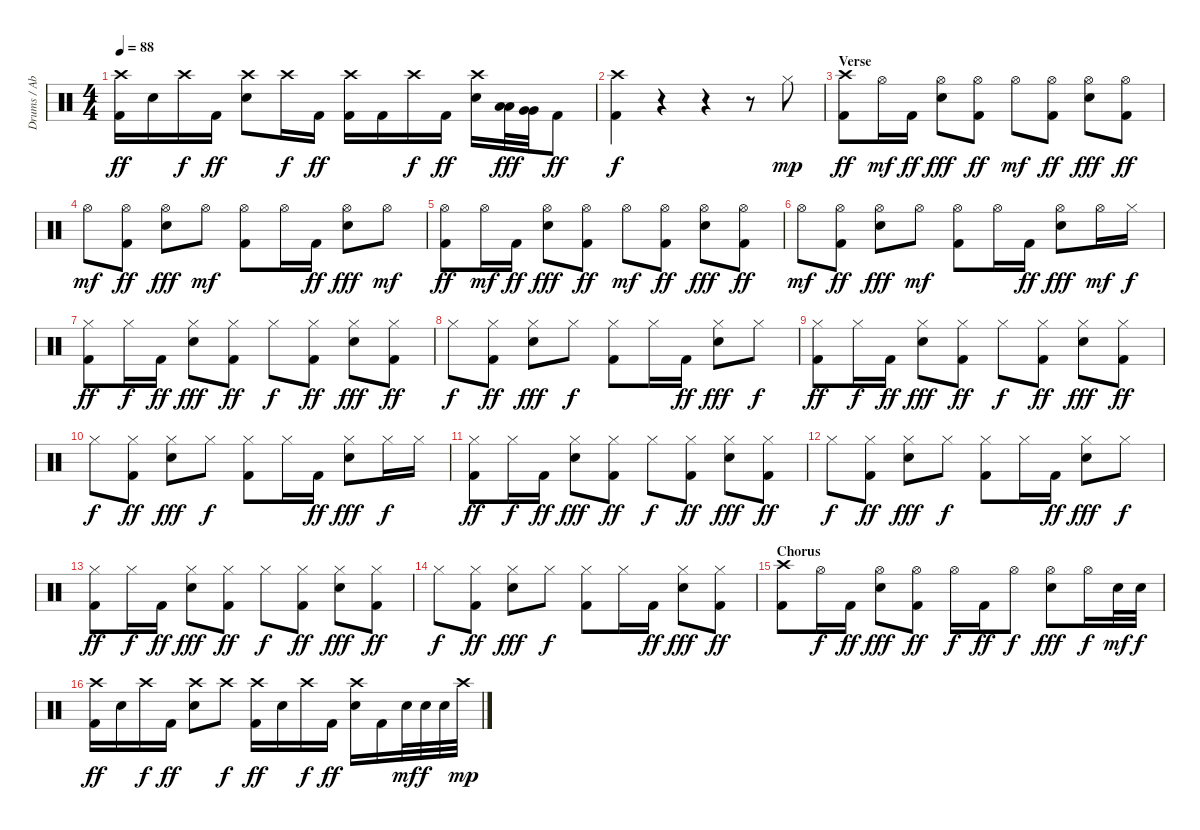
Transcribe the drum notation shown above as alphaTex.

\track ("Drums / Abe Cunningham" "Drums / Ab") {instrument percussion}
\staff {score}
\articulation defaults
\ts (4 4)
\tempo 88
\clef neutral
\ks c
("Crash high (hit)" "Kick (hit) 2").16{dy ff} "Electric Snare (hit)".16 "Crash high (hit)".16{dy f} "Kick (hit) 2".16{dy ff} ("Crash high (hit)" "Electric Snare (hit)").8 "Crash high (hit)".16{dy f} "Kick (hit) 2".16{dy ff} ("Crash high (hit)" "Kick (hit) 2").16 "Kick (hit) 2".16 "Crash high (hit)".16{dy f} "Kick (hit) 2".16{dy ff} ("Crash high (hit)" "Electric Snare (hit)").16 ("Low Tom (hit)" "Low Tom (hit)").32{dy fff} ("Very Low Tom (hit)" "Very Low Tom (hit)").32 "Kick (hit) 2".8{dy ff} |
("Crash high (hit)" "Kick (hit) 2").4{dy f} r.4 r.4 r.8 "Hi-Hat (closed)".8{dy mp} |
\section ("" "Verse")
("Crash high (hit)" "Kick (hit) 2").8{dy ff} "Hi-Hat (open)".16{dy mf} "Kick (hit) 2".16{dy ff} ("Hi-Hat (open)" "Electric Snare (hit)").8{dy fff} ("Hi-Hat (open)" "Kick (hit) 2").8{dy ff} "Hi-Hat (open)".8{dy mf} ("Hi-Hat (open)" "Kick (hit) 2").8{dy ff} ("Hi-Hat (open)" "Electric Snare (hit)").8{dy fff} ("Hi-Hat (open)" "Kick (hit) 2").8{dy ff} |
"Hi-Hat (open)".8{dy mf} ("Hi-Hat (open)" "Kick (hit) 2").8{dy ff} ("Hi-Hat (open)" "Electric Snare (hit)").8{dy fff} "Hi-Hat (open)".8{dy mf} ("Hi-Hat (open)" "Kick (hit) 2").8 "Hi-Hat (open)".16 "Kick (hit) 2".16{dy ff} ("Hi-Hat (open)" "Electric Snare (hit)").8{dy fff} "Hi-Hat (open)".8{dy mf} |
("Hi-Hat (open)" "Kick (hit) 2").8{dy ff} "Hi-Hat (open)".16{dy mf} "Kick (hit) 2".16{dy ff} ("Hi-Hat (open)" "Electric Snare (hit)").8{dy fff} ("Hi-Hat (open)" "Kick (hit) 2").8{dy ff} "Hi-Hat (open)".8{dy mf} ("Hi-Hat (open)" "Kick (hit) 2").8{dy ff} ("Hi-Hat (open)" "Electric Snare (hit)").8{dy fff} ("Hi-Hat (open)" "Kick (hit) 2").8{dy ff} |
"Hi-Hat (open)".8{dy mf} ("Hi-Hat (open)" "Kick (hit) 2").8{dy ff} ("Hi-Hat (open)" "Electric Snare (hit)").8{dy fff} "Hi-Hat (open)".8{dy mf} ("Hi-Hat (open)" "Kick (hit) 2").8 "Hi-Hat (open)".16 "Kick (hit) 2".16{dy ff} ("Hi-Hat (open)" "Electric Snare (hit)").8{dy fff} "Hi-Hat (open)".16{dy mf} "Hi-Hat (closed)".16{dy f} |
("Hi-Hat (closed)" "Kick (hit) 2").8{dy ff} "Hi-Hat (closed)".16{dy f} "Kick (hit) 2".16{dy ff} ("Hi-Hat (closed)" "Electric Snare (hit)").8{dy fff} ("Hi-Hat (closed)" "Kick (hit) 2").8{dy ff} "Hi-Hat (closed)".8{dy f} ("Hi-Hat (closed)" "Kick (hit) 2").8{dy ff} ("Hi-Hat (closed)" "Electric Snare (hit)").8{dy fff} ("Hi-Hat (closed)" "Kick (hit) 2").8{dy ff} |
"Hi-Hat (closed)".8{dy f} ("Hi-Hat (closed)" "Kick (hit) 2").8{dy ff} ("Hi-Hat (closed)" "Electric Snare (hit)").8{dy fff} "Hi-Hat (closed)".8{dy f} ("Hi-Hat (closed)" "Kick (hit) 2").8 "Hi-Hat (closed)".16 "Kick (hit) 2".16{dy ff} ("Hi-Hat (closed)" "Electric Snare (hit)").8{dy fff} "Hi-Hat (closed)".8{dy f} |
("Hi-Hat (closed)" "Kick (hit) 2").8{dy ff} "Hi-Hat (closed)".16{dy f} "Kick (hit) 2".16{dy ff} ("Hi-Hat (closed)" "Electric Snare (hit)").8{dy fff} ("Hi-Hat (closed)" "Kick (hit) 2").8{dy ff} "Hi-Hat (closed)".8{dy f} ("Hi-Hat (closed)" "Kick (hit) 2").8{dy ff} ("Hi-Hat (closed)" "Electric Snare (hit)").8{dy fff} ("Hi-Hat (closed)" "Kick (hit) 2").8{dy ff} |
"Hi-Hat (closed)".8{dy f} ("Hi-Hat (closed)" "Kick (hit) 2").8{dy ff} ("Hi-Hat (closed)" "Electric Snare (hit)").8{dy fff} "Hi-Hat (closed)".8{dy f} ("Hi-Hat (closed)" "Kick (hit) 2").8 "Hi-Hat (closed)".16 "Kick (hit) 2".16{dy ff} ("Hi-Hat (closed)" "Electric Snare (hit)").8{dy fff} "Hi-Hat (closed)".16{dy f} "Hi-Hat (closed)".16 |
("Hi-Hat (closed)" "Kick (hit) 2").8{dy ff} "Hi-Hat (closed)".16{dy f} "Kick (hit) 2".16{dy ff} ("Hi-Hat (closed)" "Electric Snare (hit)").8{dy fff} ("Hi-Hat (closed)" "Kick (hit) 2").8{dy ff} "Hi-Hat (closed)".8{dy f} ("Hi-Hat (closed)" "Kick (hit) 2").8{dy ff} ("Hi-Hat (closed)" "Electric Snare (hit)").8{dy fff} ("Hi-Hat (closed)" "Kick (hit) 2").8{dy ff} |
"Hi-Hat (closed)".8{dy f} ("Hi-Hat (closed)" "Kick (hit) 2").8{dy ff} ("Hi-Hat (closed)" "Electric Snare (hit)").8{dy fff} "Hi-Hat (closed)".8{dy f} ("Hi-Hat (closed)" "Kick (hit) 2").8 "Hi-Hat (closed)".16 "Kick (hit) 2".16{dy ff} ("Hi-Hat (closed)" "Electric Snare (hit)").8{dy fff} "Hi-Hat (closed)".8{dy f} |
("Hi-Hat (closed)" "Kick (hit) 2").8{dy ff} "Hi-Hat (closed)".16{dy f} "Kick (hit) 2".16{dy ff} ("Hi-Hat (closed)" "Electric Snare (hit)").8{dy fff} ("Hi-Hat (closed)" "Kick (hit) 2").8{dy ff} "Hi-Hat (closed)".8{dy f} ("Hi-Hat (closed)" "Kick (hit) 2").8{dy ff} ("Hi-Hat (closed)" "Electric Snare (hit)").8{dy fff} ("Hi-Hat (closed)" "Kick (hit) 2").8{dy ff} |
"Hi-Hat (closed)".8{dy f} ("Hi-Hat (closed)" "Kick (hit) 2").8{dy ff} ("Hi-Hat (closed)" "Electric Snare (hit)").8{dy fff} "Hi-Hat (closed)".8{dy f} ("Hi-Hat (closed)" "Kick (hit) 2").8 "Hi-Hat (closed)".16 "Kick (hit) 2".16{dy ff} ("Hi-Hat (closed)" "Electric Snare (hit)").8{dy fff} ("Hi-Hat (closed)" "Kick (hit) 2").8{dy ff} |
\section ("" "Chorus")
("Crash high (hit)" "Kick (hit) 2").8 "Hi-Hat (open)".16{dy f} "Kick (hit) 2".16{dy ff} ("Hi-Hat (open)" "Electric Snare (hit)").8{dy fff} ("Hi-Hat (open)" "Kick (hit) 2").8{dy ff} "Hi-Hat (open)".16{dy f} "Kick (hit) 2".16{dy ff} "Hi-Hat (open)".8{dy f} ("Hi-Hat (open)" "Electric Snare (hit)").8{dy fff} "Hi-Hat (open)".16{dy f} "Electric Snare (hit)".32{dy mf} "Electric Snare (hit)".32{dy f} |
("Crash high (hit)" "Kick (hit) 2").16{dy ff} "Electric Snare (hit)".16 "Crash high (hit)".16{dy f} "Kick (hit) 2".16{dy ff} ("Crash high (hit)" "Electric Snare (hit)").8 "Crash high (hit)".8{dy f} ("Crash high (hit)" "Kick (hit) 2").16{dy ff} "Electric Snare (hit)".16 "Crash high (hit)".16{dy f} "Kick (hit) 2".16{dy ff} ("Crash high (hit)" "Electric Snare (hit)").16 "Kick (hit) 2".16 "Electric Snare (hit)".32{dy mf} "Electric Snare (hit)".32{dy f} "Electric Snare (hit)".32 "Crash high (hit)".32{dy mp}
